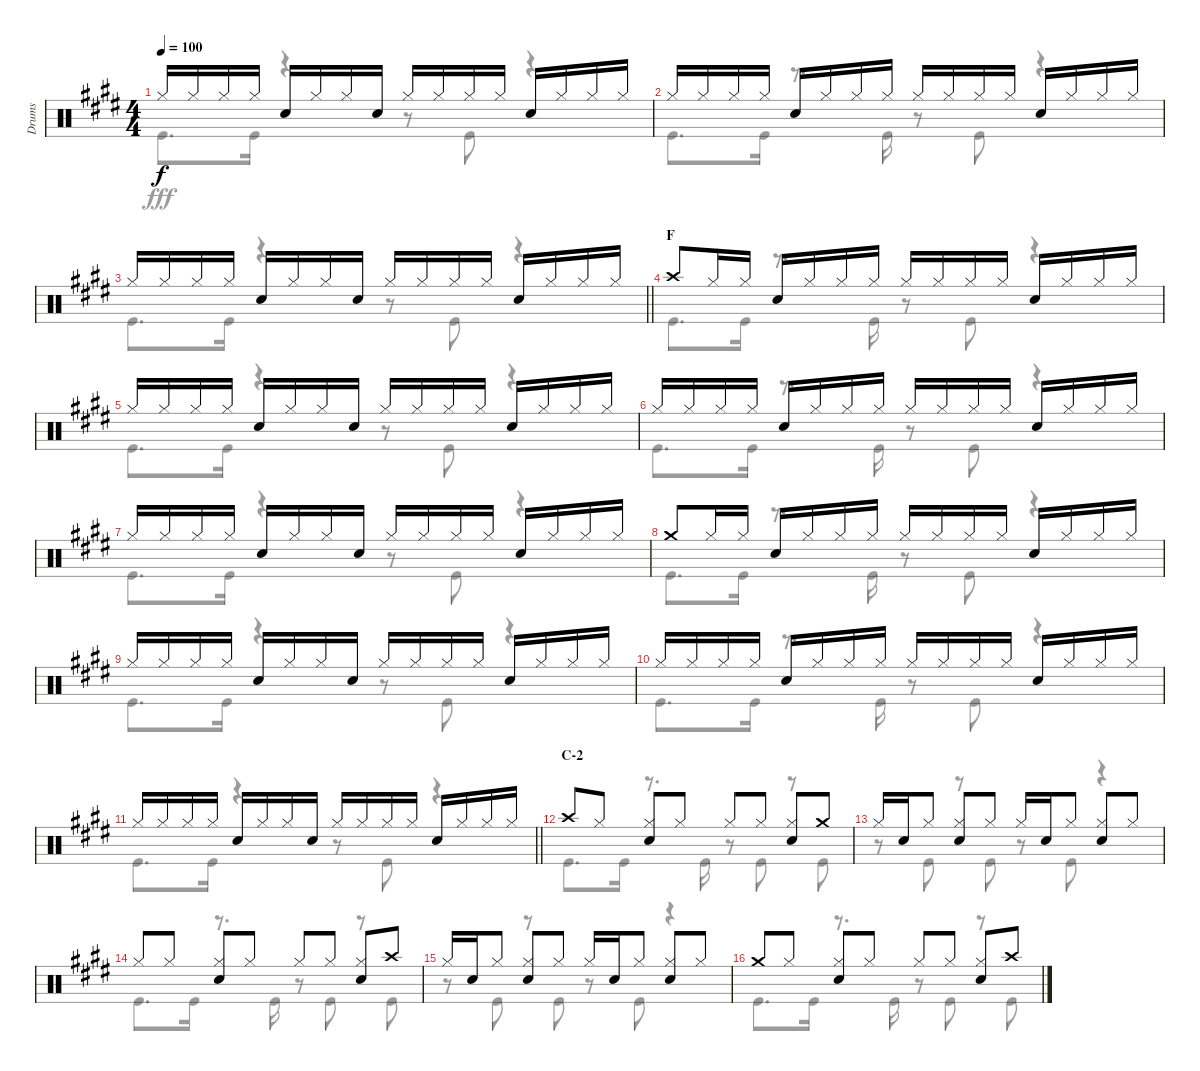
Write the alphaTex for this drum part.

\track ("Drums" "Drums") {instrument percussion}
\staff {score}
\articulation defaults
\voice
\ts (4 4)
\tempo 100
\clef neutral
\ks e "Hi-Hat (closed)".16{dy f} "Hi-Hat (closed)".16 "Hi-Hat (closed)".16 "Hi-Hat (closed)".16 "Snare (hit) 2".16 "Hi-Hat (closed)".16 "Hi-Hat (closed)".16 "Snare (hit) 2".16 "Hi-Hat (closed)".16 "Hi-Hat (closed)".16 "Hi-Hat (closed)".16 "Hi-Hat (closed)".16 "Snare (hit) 2".16 "Hi-Hat (closed)".16 "Hi-Hat (closed)".16 "Hi-Hat (closed)".16
|
"Hi-Hat (closed)".16 "Hi-Hat (closed)".16 "Hi-Hat (closed)".16 "Hi-Hat (closed)".16 "Snare (hit) 2".16 "Hi-Hat (closed)".16 "Hi-Hat (closed)".16 "Hi-Hat (closed)".16 "Hi-Hat (closed)".16 "Hi-Hat (closed)".16 "Hi-Hat (closed)".16 "Hi-Hat (closed)".16 "Snare (hit) 2".16 "Hi-Hat (closed)".16 "Hi-Hat (closed)".16 "Hi-Hat (closed)".16 |
\barLineRight lightlight "Hi-Hat (closed)".16 "Hi-Hat (closed)".16 "Hi-Hat (closed)".16 "Hi-Hat (closed)".16 "Snare (hit) 2".16 "Hi-Hat (closed)".16 "Hi-Hat (closed)".16 "Snare (hit) 2".16 "Hi-Hat (closed)".16 "Hi-Hat (closed)".16 "Hi-Hat (closed)".16 "Hi-Hat (closed)".16 "Snare (hit) 2".16 "Hi-Hat (closed)".16 "Hi-Hat (closed)".16 "Hi-Hat (closed)".16
|
\section ("" "F")
"Crash high (hit)".8 "Hi-Hat (closed)".16 "Hi-Hat (closed)".16 "Snare (hit) 2".16 "Hi-Hat (closed)".16 "Hi-Hat (closed)".16 "Hi-Hat (closed)".16 "Hi-Hat (closed)".16 "Hi-Hat (closed)".16 "Hi-Hat (closed)".16 "Hi-Hat (closed)".16 "Snare (hit) 2".16 "Hi-Hat (closed)".16 "Hi-Hat (closed)".16 "Hi-Hat (closed)".16 |
"Hi-Hat (closed)".16 "Hi-Hat (closed)".16 "Hi-Hat (closed)".16 "Hi-Hat (closed)".16 "Snare (hit) 2".16 "Hi-Hat (closed)".16 "Hi-Hat (closed)".16 "Snare (hit) 2".16 "Hi-Hat (closed)".16 "Hi-Hat (closed)".16 "Hi-Hat (closed)".16 "Hi-Hat (closed)".16 "Snare (hit) 2".16 "Hi-Hat (closed)".16 "Hi-Hat (closed)".16 "Hi-Hat (closed)".16 |
"Hi-Hat (closed)".16 "Hi-Hat (closed)".16 "Hi-Hat (closed)".16 "Hi-Hat (closed)".16 "Snare (hit) 2".16 "Hi-Hat (closed)".16 "Hi-Hat (closed)".16 "Hi-Hat (closed)".16 "Hi-Hat (closed)".16 "Hi-Hat (closed)".16 "Hi-Hat (closed)".16 "Hi-Hat (closed)".16 "Snare (hit) 2".16 "Hi-Hat (closed)".16 "Hi-Hat (closed)".16 "Hi-Hat (closed)".16 |
"Hi-Hat (closed)".16 "Hi-Hat (closed)".16 "Hi-Hat (closed)".16 "Hi-Hat (closed)".16 "Snare (hit) 2".16 "Hi-Hat (closed)".16 "Hi-Hat (closed)".16 "Snare (hit) 2".16 "Hi-Hat (closed)".16 "Hi-Hat (closed)".16 "Hi-Hat (closed)".16 "Hi-Hat (closed)".16 "Snare (hit) 2".16 "Hi-Hat (closed)".16 "Hi-Hat (closed)".16 "Hi-Hat (closed)".16 |
"Crash medium (hit)".8 "Hi-Hat (closed)".16 "Hi-Hat (closed)".16 "Snare (hit) 2".16 "Hi-Hat (closed)".16 "Hi-Hat (closed)".16 "Hi-Hat (closed)".16 "Hi-Hat (closed)".16 "Hi-Hat (closed)".16 "Hi-Hat (closed)".16 "Hi-Hat (closed)".16 "Snare (hit) 2".16 "Hi-Hat (closed)".16 "Hi-Hat (closed)".16 "Hi-Hat (closed)".16 |
"Hi-Hat (closed)".16 "Hi-Hat (closed)".16 "Hi-Hat (closed)".16 "Hi-Hat (closed)".16 "Snare (hit) 2".16 "Hi-Hat (closed)".16 "Hi-Hat (closed)".16 "Snare (hit) 2".16 "Hi-Hat (closed)".16 "Hi-Hat (closed)".16 "Hi-Hat (closed)".16 "Hi-Hat (closed)".16 "Snare (hit) 2".16 "Hi-Hat (closed)".16 "Hi-Hat (closed)".16 "Hi-Hat (closed)".16 |
"Hi-Hat (closed)".16 "Hi-Hat (closed)".16 "Hi-Hat (closed)".16 "Hi-Hat (closed)".16 "Snare (hit) 2".16 "Hi-Hat (closed)".16 "Hi-Hat (closed)".16 "Hi-Hat (closed)".16 "Hi-Hat (closed)".16 "Hi-Hat (closed)".16 "Hi-Hat (closed)".16 "Hi-Hat (closed)".16 "Snare (hit) 2".16 "Hi-Hat (closed)".16 "Hi-Hat (closed)".16 "Hi-Hat (closed)".16 |
\barLineRight lightlight "Hi-Hat (closed)".16 "Hi-Hat (closed)".16 "Hi-Hat (closed)".16 "Hi-Hat (closed)".16 "Snare (hit) 2".16 "Hi-Hat (closed)".16 "Hi-Hat (closed)".16 "Snare (hit) 2".16 "Hi-Hat (closed)".16 "Hi-Hat (closed)".16 "Hi-Hat (closed)".16 "Hi-Hat (closed)".16 "Snare (hit) 2".16 "Hi-Hat (closed)".16 "Hi-Hat (closed)".16 "Hi-Hat (closed)".16
|
\section ("" "C-2")
"Crash high (hit)".8 "Hi-Hat (closed)".8 ("Hi-Hat (closed)" "Snare (hit) 2").8 "Hi-Hat (closed)".8 "Hi-Hat (closed)".8 "Hi-Hat (closed)".8 ("Hi-Hat (closed)" "Snare (hit) 2").8 "Crash medium (hit)".8 |
"Hi-Hat (closed)".16 "Snare (hit) 2".16 "Hi-Hat (closed)".8 ("Hi-Hat (closed)" "Snare (hit) 2").8 "Hi-Hat (closed)".8 "Hi-Hat (closed)".16 "Snare (hit) 2".16 "Hi-Hat (closed)".8 ("Hi-Hat (closed)" "Snare (hit) 2").8 "Hi-Hat (closed)".8 |
"Hi-Hat (closed)".8 "Hi-Hat (closed)".8 ("Hi-Hat (closed)" "Snare (hit) 2").8 "Hi-Hat (closed)".8 "Hi-Hat (closed)".8 "Hi-Hat (closed)".8 ("Hi-Hat (closed)" "Snare (hit) 2").8 "Crash high (hit)".8 |
"Hi-Hat (closed)".16 "Snare (hit) 2".16 "Hi-Hat (closed)".8 ("Hi-Hat (closed)" "Snare (hit) 2").8 "Hi-Hat (closed)".8 "Hi-Hat (closed)".16 "Snare (hit) 2".16 "Hi-Hat (closed)".8 ("Hi-Hat (closed)" "Snare (hit) 2").8 "Hi-Hat (closed)".8 |
"Crash medium (hit)".8 "Hi-Hat (closed)".8 ("Hi-Hat (closed)" "Snare (hit) 2").8 "Hi-Hat (closed)".8 "Hi-Hat (closed)".8 "Hi-Hat (closed)".8 ("Hi-Hat (closed)" "Snare (hit) 2").8 "Crash high (hit)".8
\voice
\clef neutral
\ottava regular
\simile none
\ks e "Kick (hit)".8{d dy fff} "Kick (hit)".16
r.4 r.8 "Kick (hit)".8 r.4 |
"Kick (hit)".8{d} "Kick (hit)".16 r.8{d} "Kick (hit)".16 r.8 "Kick (hit)".8 r.4 |
\barLineRight lightlight "Kick (hit)".8{d} "Kick (hit)".16
r.4 r.8 "Kick (hit)".8 r.4 |
"Kick (hit)".8{d} "Kick (hit)".16 r.8{d} "Kick (hit)".16 r.8 "Kick (hit)".8 r.4 |
"Kick (hit)".8{d} "Kick (hit)".16 r.4 r.8 "Kick (hit)".8 r.4 |
"Kick (hit)".8{d} "Kick (hit)".16 r.8{d} "Kick (hit)".16 r.8 "Kick (hit)".8 r.4 |
"Kick (hit)".8{d} "Kick (hit)".16 r.4 r.8 "Kick (hit)".8 r.4 |
"Kick (hit)".8{d} "Kick (hit)".16 r.8{d} "Kick (hit)".16 r.8 "Kick (hit)".8 r.4 |
"Kick (hit)".8{d} "Kick (hit)".16 r.4 r.8 "Kick (hit)".8 r.4 |
"Kick (hit)".8{d} "Kick (hit)".16 r.8{d} "Kick (hit)".16 r.8 "Kick (hit)".8 r.4 |
\barLineRight lightlight "Kick (hit)".8{d} "Kick (hit)".16
r.4 r.8 "Kick (hit)".8 r.4 |
"Kick (hit)".8{d} "Kick (hit)".16 r.8{d} "Kick (hit)".16 r.8 "Kick (hit)".8 r.8 "Kick (hit)".8 |
r.8 "Kick (hit)".8 r.8 "Kick (hit)".8 r.8 "Kick (hit)".8 r.4 |
"Kick (hit)".8{d} "Kick (hit)".16 r.8{d} "Kick (hit)".16 r.8 "Kick (hit)".8 r.8 "Kick (hit)".8 |
r.8 "Kick (hit)".8 r.8 "Kick (hit)".8 r.8 "Kick (hit)".8 r.4 |
"Kick (hit)".8{d} "Kick (hit)".16 r.8{d} "Kick (hit)".16 r.8 "Kick (hit)".8 r.8 "Kick (hit)".8
